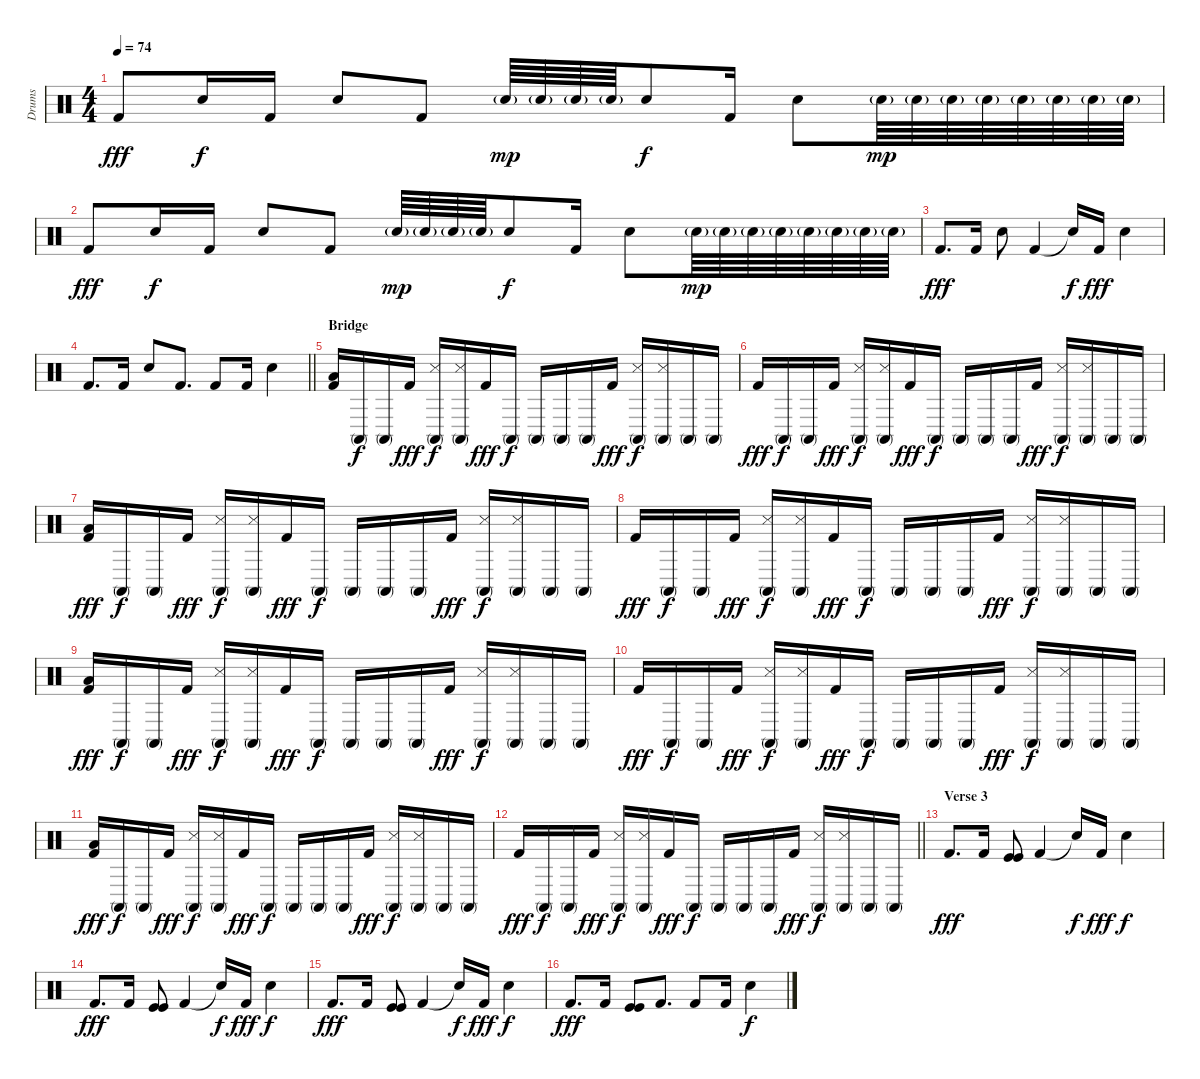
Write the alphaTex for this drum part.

\track ("Drums" "Drums") {instrument percussion}
\staff {score}
\articulation defaults
\ts (4 4)
\tempo 74
\clef neutral
\ks c "Kick (hit) 2".8{dy fff} "Snare (hit) 2".16{dy f} "Kick (hit) 2".16 "Snare (hit) 2".8 "Kick (hit) 2".8 "Electric Snare (hit)"{g}.64{dy mp} "Electric Snare (hit)"{g}.64 "Electric Snare (hit)"{g}.64 "Electric Snare (hit)"{g}.64 "Snare (hit) 2".8{dy f} "Kick (hit) 2".16 "Snare (hit) 2".8 "Electric Snare (hit)"{g}.64{dy mp} "Electric Snare (hit)"{g}.64 "Electric Snare (hit)"{g}.64 "Electric Snare (hit)"{g}.64 "Electric Snare (hit)"{g}.64 "Electric Snare (hit)"{g}.64 "Electric Snare (hit)"{g}.64 "Electric Snare (hit)"{g}.64
|
"Kick (hit) 2".8{dy fff} "Snare (hit) 2".16{dy f} "Kick (hit) 2".16 "Snare (hit) 2".8 "Kick (hit) 2".8 "Electric Snare (hit)"{g}.64{dy mp} "Electric Snare (hit)"{g}.64 "Electric Snare (hit)"{g}.64 "Electric Snare (hit)"{g}.64 "Snare (hit) 2".8{dy f} "Kick (hit) 2".16 "Snare (hit) 2".8 "Electric Snare (hit)"{g}.64{dy mp} "Electric Snare (hit)"{g}.64 "Electric Snare (hit)"{g}.64 "Electric Snare (hit)"{g}.64 "Electric Snare (hit)"{g}.64 "Electric Snare (hit)"{g}.64 "Electric Snare (hit)"{g}.64 "Electric Snare (hit)"{g}.64 |
"Kick (hit) 2".8{d dy fff} "Kick (hit) 2".16 "Snare (hit) 2".8 "Kick (hit) 2".4 "Snare (hit)"{t}.16{dy f} "Kick (hit) 2".16{dy fff} "Snare (hit) 2".4 |
\barLineRight lightlight "Kick (hit) 2".8{d} "Kick (hit) 2".16 "Snare (hit) 2".8 "Kick (hit) 2".8{d} "Kick (hit) 2".8 "Kick (hit) 2".16 "Snare (hit) 2".4
|
\section ("" "Bridge")
("Low Floor Tom (hit)" "Kick (hit) 2").16 "Conga high (mute)".16{dy f balance 16} "Conga high (mute)".16{balance 10} "Kick (hit) 2".16{dy fff balance 16} ("Snare (side stick) 3" "Conga high (mute)").16{dy f balance 0} ("Snare (side stick) 3" "Conga high (mute)").16{balance 16} "Kick (hit) 2".16{dy fff balance 0} "Conga high (mute)".16{dy f balance 16} "Conga high (mute)".16{balance 0} "Conga high (mute)".16{balance 16} "Conga high (mute)".16{balance 0} "Kick (hit) 2".16{dy fff balance 16} ("Snare (side stick) 3" "Conga high (mute)").16{dy f balance 0} ("Snare (side stick) 3" "Conga high (mute)").16{balance 16} "Conga high (mute)".16{balance 0} "Conga high (mute)".16{balance 16} |
"Kick (hit) 2".16{dy fff balance 0} "Conga high (mute)".16{dy f balance 16} "Conga high (mute)".16{balance 10} "Kick (hit) 2".16{dy fff balance 16} ("Snare (side stick) 3" "Conga high (mute)").16{dy f balance 0} ("Snare (side stick) 3" "Conga high (mute)").16{balance 16} "Kick (hit) 2".16{dy fff balance 0} "Conga high (mute)".16{dy f balance 16} "Conga high (mute)".16{balance 0} "Conga high (mute)".16{balance 16} "Conga high (mute)".16{balance 0} "Kick (hit) 2".16{dy fff balance 16} ("Snare (side stick) 3" "Conga high (mute)").16{dy f balance 0} ("Snare (side stick) 3" "Conga high (mute)").16{balance 16} "Conga high (mute)".16{balance 0} "Conga high (mute)".16{balance 16} |
("Low Floor Tom (hit)" "Kick (hit) 2").16{dy fff} "Conga high (mute)".16{dy f balance 16} "Conga high (mute)".16{balance 10} "Kick (hit) 2".16{dy fff balance 16} ("Snare (side stick) 3" "Conga high (mute)").16{dy f balance 0} ("Snare (side stick) 3" "Conga high (mute)").16{balance 16} "Kick (hit) 2".16{dy fff balance 0} "Conga high (mute)".16{dy f balance 16} "Conga high (mute)".16{balance 0} "Conga high (mute)".16{balance 16} "Conga high (mute)".16{balance 0} "Kick (hit) 2".16{dy fff balance 16} ("Snare (side stick) 3" "Conga high (mute)").16{dy f balance 0} ("Snare (side stick) 3" "Conga high (mute)").16{balance 16} "Conga high (mute)".16{balance 0} "Conga high (mute)".16{balance 16} |
"Kick (hit) 2".16{dy fff balance 0} "Conga high (mute)".16{dy f balance 16} "Conga high (mute)".16{balance 10} "Kick (hit) 2".16{dy fff balance 16} ("Snare (side stick) 3" "Conga high (mute)").16{dy f balance 0} ("Snare (side stick) 3" "Conga high (mute)").16{balance 16} "Kick (hit) 2".16{dy fff balance 0} "Conga high (mute)".16{dy f balance 16} "Conga high (mute)".16{balance 0} "Conga high (mute)".16{balance 16} "Conga high (mute)".16{balance 0} "Kick (hit) 2".16{dy fff balance 16} ("Snare (side stick) 3" "Conga high (mute)").16{dy f balance 0} ("Snare (side stick) 3" "Conga high (mute)").16{balance 16} "Conga high (mute)".16{balance 0} "Conga high (mute)".16{balance 16} |
("Low Floor Tom (hit)" "Kick (hit) 2").16{dy fff} "Conga high (mute)".16{dy f balance 16} "Conga high (mute)".16{balance 10} "Kick (hit) 2".16{dy fff balance 16} ("Snare (side stick) 3" "Conga high (mute)").16{dy f balance 0} ("Snare (side stick) 3" "Conga high (mute)").16{balance 16} "Kick (hit) 2".16{dy fff balance 0} "Conga high (mute)".16{dy f balance 16} "Conga high (mute)".16{balance 0} "Conga high (mute)".16{balance 16} "Conga high (mute)".16{balance 0} "Kick (hit) 2".16{dy fff balance 16} ("Snare (side stick) 3" "Conga high (mute)").16{dy f balance 0} ("Snare (side stick) 3" "Conga high (mute)").16{balance 16} "Conga high (mute)".16{balance 0} "Conga high (mute)".16{balance 16} |
"Kick (hit) 2".16{dy fff balance 0} "Conga high (mute)".16{dy f balance 16} "Conga high (mute)".16{balance 10} "Kick (hit) 2".16{dy fff balance 16} ("Snare (side stick) 3" "Conga high (mute)").16{dy f balance 0} ("Snare (side stick) 3" "Conga high (mute)").16{balance 16} "Kick (hit) 2".16{dy fff balance 0} "Conga high (mute)".16{dy f balance 16} "Conga high (mute)".16{balance 0} "Conga high (mute)".16{balance 16} "Conga high (mute)".16{balance 0} "Kick (hit) 2".16{dy fff balance 16} ("Snare (side stick) 3" "Conga high (mute)").16{dy f balance 0} ("Snare (side stick) 3" "Conga high (mute)").16{balance 16} "Conga high (mute)".16{balance 0} "Conga high (mute)".16{balance 16} |
("Low Floor Tom (hit)" "Kick (hit) 2").16{dy fff} "Conga high (mute)".16{dy f balance 16} "Conga high (mute)".16{balance 10} "Kick (hit) 2".16{dy fff balance 16} ("Snare (side stick) 3" "Conga high (mute)").16{dy f balance 0} ("Snare (side stick) 3" "Conga high (mute)").16{balance 16} "Kick (hit) 2".16{dy fff balance 0} "Conga high (mute)".16{dy f balance 16} "Conga high (mute)".16{balance 0} "Conga high (mute)".16{balance 16} "Conga high (mute)".16{balance 0} "Kick (hit) 2".16{dy fff balance 16} ("Snare (side stick) 3" "Conga high (mute)").16{dy f balance 0} ("Snare (side stick) 3" "Conga high (mute)").16{balance 16} "Conga high (mute)".16{balance 0} "Conga high (mute)".16{balance 16} |
\barLineRight lightlight "Kick (hit) 2".16{dy fff balance 0} "Conga high (mute)".16{dy f balance 16} "Conga high (mute)".16{balance 10} "Kick (hit) 2".16{dy fff balance 16}
("Snare (side stick) 3" "Conga high (mute)").16{dy f balance 0} ("Snare (side stick) 3" "Conga high (mute)").16{balance 16} "Kick (hit) 2".16{dy fff balance 0} "Conga high (mute)".16{dy f balance 16} "Conga high (mute)".16{balance 0} "Conga high (mute)".16{balance 16} "Conga high (mute)".16{balance 0} "Kick (hit) 2".16{dy fff balance 16} ("Snare (side stick) 3" "Conga high (mute)").16{dy f balance 0} ("Snare (side stick) 3" "Conga high (mute)").16{balance 16} "Conga high (mute)".16{balance 0} "Conga high (mute)".16{balance 8} |
\section ("" "Verse 3")
"Kick (hit) 2".8{d dy fff} "Kick (hit) 2".16 ("Kick (hit)" "Kick (hit)").8 "Kick (hit) 2".4 "Snare (hit)"{t}.16{dy f} "Kick (hit) 2".16{dy fff} "Snare (hit) 2".4{dy f} |
"Kick (hit) 2".8{d dy fff} "Kick (hit) 2".16 ("Kick (hit)" "Kick (hit)").8 "Kick (hit) 2".4 "Snare (hit)"{t}.16{dy f} "Kick (hit) 2".16{dy fff} "Snare (hit) 2".4{dy f} |
"Kick (hit) 2".8{d dy fff} "Kick (hit) 2".16 ("Kick (hit)" "Kick (hit)").8 "Kick (hit) 2".4 "Snare (hit)"{t}.16{dy f} "Kick (hit) 2".16{dy fff} "Snare (hit) 2".4{dy f} |
"Kick (hit) 2".8{d dy fff} "Kick (hit) 2".16 ("Kick (hit)" "Kick (hit)").8 "Kick (hit) 2".8{d} "Kick (hit) 2".8 "Kick (hit) 2".16 "Snare (hit) 2".4{dy f}
